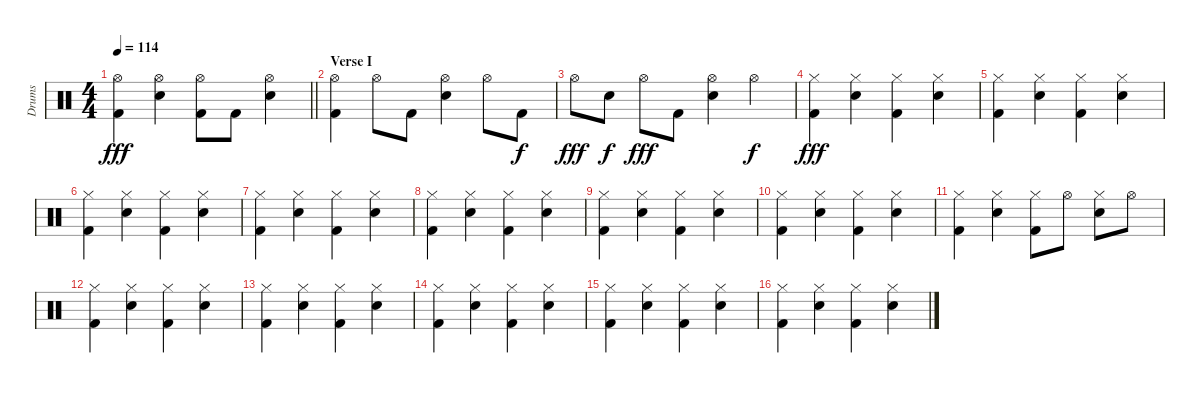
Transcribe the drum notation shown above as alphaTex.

\track ("Drums" "Drums") {instrument percussion}
\staff {score}
\articulation defaults
\ts (4 4)
\tempo 114
\clef neutral
\barLineRight lightlight
\ks c
("Hi-Hat (open)" "Kick (hit) 2").4{dy fff} ("Hi-Hat (open)" "Snare (hit) 2").4 ("Hi-Hat (open)" "Kick (hit) 2").8 "Kick (hit) 2".8 ("Hi-Hat (open)" "Snare (hit) 2").4 |
\section ("" "Verse I")
("Hi-Hat (open)" "Kick (hit) 2").4 "Hi-Hat (open)".8 "Kick (hit) 2".8 ("Hi-Hat (open)" "Snare (hit) 2").4 "Hi-Hat (open)".8 "Kick (hit) 2".8{dy f} |
"Hi-Hat (open)".8{dy fff} "Snare (hit) 2".8{dy f} "Hi-Hat (open)".8{dy fff} "Kick (hit) 2".8 ("Hi-Hat (open)" "Snare (hit) 2").4 "Hi-Hat (open)".4{dy f} |
("Hi-Hat (closed)" "Kick (hit) 2").4{dy fff} ("Hi-Hat (closed)" "Snare (hit) 2").4 ("Hi-Hat (closed)" "Kick (hit) 2").4 ("Hi-Hat (closed)" "Snare (hit) 2").4 |
("Hi-Hat (closed)" "Kick (hit) 2").4 ("Hi-Hat (closed)" "Snare (hit) 2").4 ("Hi-Hat (closed)" "Kick (hit) 2").4 ("Hi-Hat (closed)" "Snare (hit) 2").4 |
("Hi-Hat (closed)" "Kick (hit) 2").4 ("Hi-Hat (closed)" "Snare (hit) 2").4 ("Hi-Hat (closed)" "Kick (hit) 2").4 ("Hi-Hat (closed)" "Snare (hit) 2").4 |
("Hi-Hat (closed)" "Kick (hit) 2").4 ("Hi-Hat (closed)" "Snare (hit) 2").4 ("Hi-Hat (closed)" "Kick (hit) 2").4 ("Hi-Hat (closed)" "Snare (hit) 2").4 |
("Hi-Hat (closed)" "Kick (hit) 2").4 ("Hi-Hat (closed)" "Snare (hit) 2").4 ("Hi-Hat (closed)" "Kick (hit) 2").4 ("Hi-Hat (closed)" "Snare (hit) 2").4 |
("Hi-Hat (closed)" "Kick (hit) 2").4 ("Hi-Hat (closed)" "Snare (hit) 2").4 ("Hi-Hat (closed)" "Kick (hit) 2").4 ("Hi-Hat (closed)" "Snare (hit) 2").4 |
("Hi-Hat (closed)" "Kick (hit) 2").4 ("Hi-Hat (closed)" "Snare (hit) 2").4 ("Hi-Hat (closed)" "Kick (hit) 2").4 ("Hi-Hat (closed)" "Snare (hit) 2").4 |
("Hi-Hat (closed)" "Kick (hit) 2").4 ("Hi-Hat (closed)" "Snare (hit) 2").4 ("Hi-Hat (closed)" "Kick (hit) 2").8 "Hi-Hat (open)".8 ("Hi-Hat (closed)" "Snare (hit) 2").8 "Hi-Hat (open)".8 |
("Hi-Hat (closed)" "Kick (hit) 2").4 ("Hi-Hat (closed)" "Snare (hit) 2").4 ("Hi-Hat (closed)" "Kick (hit) 2").4 ("Hi-Hat (closed)" "Snare (hit) 2").4 |
("Hi-Hat (closed)" "Kick (hit) 2").4 ("Hi-Hat (closed)" "Snare (hit) 2").4 ("Hi-Hat (closed)" "Kick (hit) 2").4 ("Hi-Hat (closed)" "Snare (hit) 2").4 |
("Hi-Hat (closed)" "Kick (hit) 2").4 ("Hi-Hat (closed)" "Snare (hit) 2").4 ("Hi-Hat (closed)" "Kick (hit) 2").4 ("Hi-Hat (closed)" "Snare (hit) 2").4 |
("Hi-Hat (closed)" "Kick (hit) 2").4 ("Hi-Hat (closed)" "Snare (hit) 2").4 ("Hi-Hat (closed)" "Kick (hit) 2").4 ("Hi-Hat (closed)" "Snare (hit) 2").4 |
("Hi-Hat (closed)" "Kick (hit) 2").4 ("Hi-Hat (closed)" "Snare (hit) 2").4 ("Hi-Hat (closed)" "Kick (hit) 2").4 ("Hi-Hat (closed)" "Snare (hit) 2").4
